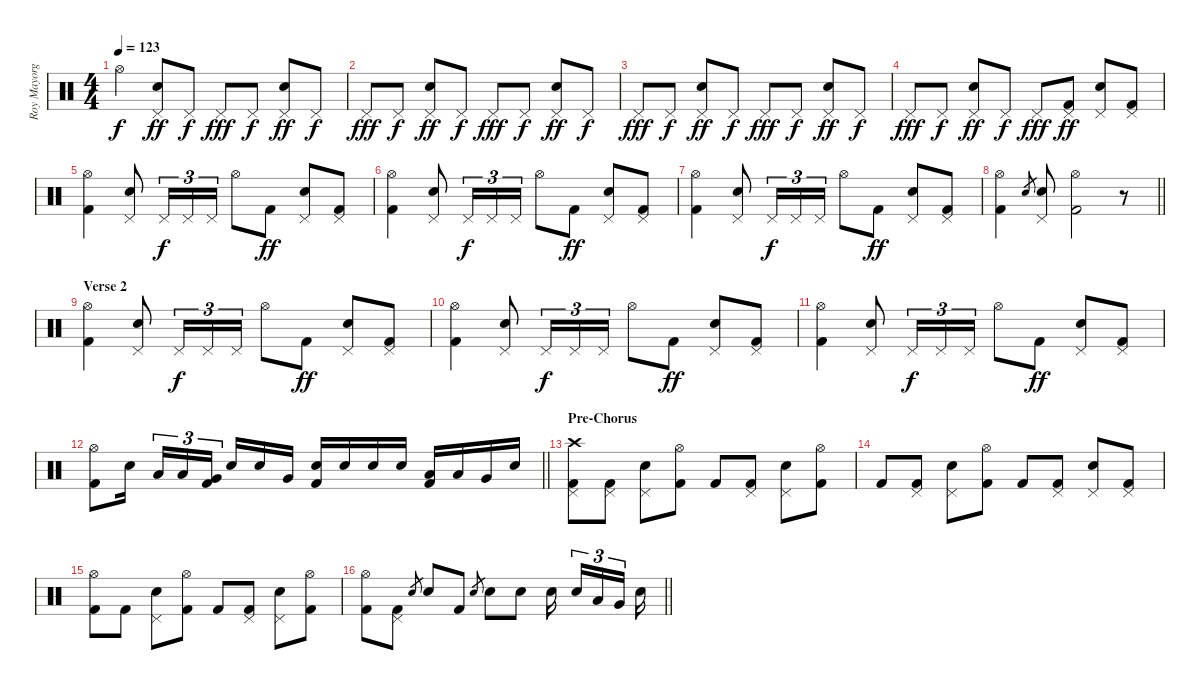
\track ("Roy Mayorga (Drums)" "Roy Mayorg") {instrument percussion}
\staff {score}
\articulation defaults
\ts (4 4)
\tempo 123
\clef neutral
\ks c "Hi-Hat (open)".4{dy f}
("Pedal Hi-Hat (hit)" "Electric Snare (hit)").8{dy ff} "Pedal Hi-Hat (hit)".8{dy f} "Pedal Hi-Hat (hit)".8{dy fff} "Pedal Hi-Hat (hit)".8{dy f} ("Pedal Hi-Hat (hit)" "Electric Snare (hit)").8{dy ff} "Pedal Hi-Hat (hit)".8{dy f} |
"Pedal Hi-Hat (hit)".8{dy fff} "Pedal Hi-Hat (hit)".8{dy f} ("Pedal Hi-Hat (hit)" "Electric Snare (hit)").8{dy ff} "Pedal Hi-Hat (hit)".8{dy f} "Pedal Hi-Hat (hit)".8{dy fff} "Pedal Hi-Hat (hit)".8{dy f} ("Pedal Hi-Hat (hit)" "Electric Snare (hit)").8{dy ff} "Pedal Hi-Hat (hit)".8{dy f} |
"Pedal Hi-Hat (hit)".8{dy fff} "Pedal Hi-Hat (hit)".8{dy f} ("Pedal Hi-Hat (hit)" "Electric Snare (hit)").8{dy ff} "Pedal Hi-Hat (hit)".8{dy f} "Pedal Hi-Hat (hit)".8{dy fff} "Pedal Hi-Hat (hit)".8{dy f} ("Pedal Hi-Hat (hit)" "Electric Snare (hit)").8{dy ff} "Pedal Hi-Hat (hit)".8{dy f} |
"Pedal Hi-Hat (hit)".8{dy fff} "Pedal Hi-Hat (hit)".8{dy f} ("Pedal Hi-Hat (hit)" "Electric Snare (hit)").8{dy ff} "Pedal Hi-Hat (hit)".8{dy f} "Pedal Hi-Hat (hit)".8{dy fff} ("Pedal Hi-Hat (hit)" "Kick (hit) 2").8{dy ff} ("Pedal Hi-Hat (hit)" "Electric Snare (hit)").8 ("Pedal Hi-Hat (hit)" "Kick (hit) 2").8 |
("Hi-Hat (open)" "Kick (hit) 2").4 ("Pedal Hi-Hat (hit)" "Electric Snare (hit)").8 "Pedal Hi-Hat (hit)".16{tu (3 2) dy f} "Pedal Hi-Hat (hit)".16{tu (3 2)} "Pedal Hi-Hat (hit)".16{tu (3 2)} "Hi-Hat (open)".8 "Kick (hit) 2".8{dy ff} ("Pedal Hi-Hat (hit)" "Electric Snare (hit)").8 ("Pedal Hi-Hat (hit)" "Kick (hit) 2").8 |
("Hi-Hat (open)" "Kick (hit) 2").4 ("Pedal Hi-Hat (hit)" "Electric Snare (hit)").8 "Pedal Hi-Hat (hit)".16{tu (3 2) dy f} "Pedal Hi-Hat (hit)".16{tu (3 2)} "Pedal Hi-Hat (hit)".16{tu (3 2)} "Hi-Hat (open)".8 "Kick (hit) 2".8{dy ff} ("Pedal Hi-Hat (hit)" "Electric Snare (hit)").8 ("Pedal Hi-Hat (hit)" "Kick (hit) 2").8 |
("Hi-Hat (open)" "Kick (hit) 2").4 ("Pedal Hi-Hat (hit)" "Electric Snare (hit)").8 "Pedal Hi-Hat (hit)".16{tu (3 2) dy f} "Pedal Hi-Hat (hit)".16{tu (3 2)} "Pedal Hi-Hat (hit)".16{tu (3 2)} "Hi-Hat (open)".8 "Kick (hit) 2".8{dy ff} ("Pedal Hi-Hat (hit)" "Electric Snare (hit)").8 ("Pedal Hi-Hat (hit)" "Kick (hit) 2").8 |
\barLineRight lightlight
("Hi-Hat (open)" "Kick (hit) 2").4 "Electric Snare (hit)".8{gr} ("Pedal Hi-Hat (hit)" "Electric Snare (hit)").8 ("Hi-Hat (open)" "Kick (hit) 2").2 r.8 |
\section ("" "Verse 2")
("Hi-Hat (open)" "Kick (hit) 2").4 ("Pedal Hi-Hat (hit)" "Electric Snare (hit)").8 "Pedal Hi-Hat (hit)".16{tu (3 2) dy f} "Pedal Hi-Hat (hit)".16{tu (3 2)} "Pedal Hi-Hat (hit)".16{tu (3 2)} "Hi-Hat (open)".8 "Kick (hit) 2".8{dy ff} ("Pedal Hi-Hat (hit)" "Electric Snare (hit)").8 ("Pedal Hi-Hat (hit)" "Kick (hit) 2").8 |
("Hi-Hat (open)" "Kick (hit) 2").4 ("Pedal Hi-Hat (hit)" "Electric Snare (hit)").8 "Pedal Hi-Hat (hit)".16{tu (3 2) dy f} "Pedal Hi-Hat (hit)".16{tu (3 2)} "Pedal Hi-Hat (hit)".16{tu (3 2)} "Hi-Hat (open)".8 "Kick (hit) 2".8{dy ff} ("Pedal Hi-Hat (hit)" "Electric Snare (hit)").8 ("Pedal Hi-Hat (hit)" "Kick (hit) 2").8 |
("Hi-Hat (open)" "Kick (hit) 2").4 ("Pedal Hi-Hat (hit)" "Electric Snare (hit)").8 "Pedal Hi-Hat (hit)".16{tu (3 2) dy f} "Pedal Hi-Hat (hit)".16{tu (3 2)} "Pedal Hi-Hat (hit)".16{tu (3 2)} "Hi-Hat (open)".8 "Kick (hit) 2".8{dy ff} ("Pedal Hi-Hat (hit)" "Electric Snare (hit)").8 ("Pedal Hi-Hat (hit)" "Kick (hit) 2").8 |
\barLineRight lightlight
("Hi-Hat (open)" "Kick (hit) 2").8 "Electric Snare (hit)".16{beam splitsecondary} "Low Tom (hit)".16{tu (3 2)} "Low Tom (hit)".16{tu (3 2)} ("Very Low Tom (hit)" "Kick (hit) 2").16{tu (3 2) beam splitsecondary} "Electric Snare (hit)".16 "Electric Snare (hit)".16 "Very Low Tom (hit)".16 ("Electric Snare (hit)" "Kick (hit) 2").16 "Electric Snare (hit)".16 "Electric Snare (hit)".16 "Electric Snare (hit)".16 ("Low Tom (hit)" "Kick (hit) 2").16 "Low Tom (hit)".16 "Very Low Tom (hit)".16 "Electric Snare (hit)".16 |
\section ("" "Pre-Chorus")
("Crash high (hit)" "Pedal Hi-Hat (hit)" "Kick (hit) 2").8 ("Pedal Hi-Hat (hit)" "Kick (hit) 2").8 ("Pedal Hi-Hat (hit)" "Electric Snare (hit)").8 ("Hi-Hat (open)" "Kick (hit) 2").8 "Kick (hit) 2".8 ("Pedal Hi-Hat (hit)" "Kick (hit) 2").8 ("Pedal Hi-Hat (hit)" "Electric Snare (hit)").8 ("Hi-Hat (open)" "Kick (hit) 2").8 |
"Kick (hit) 2".8 ("Pedal Hi-Hat (hit)" "Kick (hit) 2").8 ("Pedal Hi-Hat (hit)" "Electric Snare (hit)").8 ("Hi-Hat (open)" "Kick (hit) 2").8 "Kick (hit) 2".8 ("Pedal Hi-Hat (hit)" "Kick (hit) 2").8 ("Pedal Hi-Hat (hit)" "Electric Snare (hit)").8 ("Pedal Hi-Hat (hit)" "Kick (hit) 2").8 |
("Hi-Hat (open)" "Kick (hit) 2").8 "Kick (hit) 2".8 ("Pedal Hi-Hat (hit)" "Electric Snare (hit)").8 ("Hi-Hat (open)" "Kick (hit) 2").8 "Kick (hit) 2".8 ("Pedal Hi-Hat (hit)" "Kick (hit) 2").8 ("Pedal Hi-Hat (hit)" "Electric Snare (hit)").8 ("Hi-Hat (open)" "Kick (hit) 2").8 |
\barLineRight lightlight
("Hi-Hat (open)" "Kick (hit) 2").8 ("Pedal Hi-Hat (hit)" "Kick (hit) 2").8 "Electric Snare (hit)".8{gr} "Electric Snare (hit)".8 "Kick (hit) 2".8 "Electric Snare (hit)".8{gr} "Electric Snare (hit)".8 "Electric Snare (hit)".8 "Electric Snare (hit)".16{beam splitsecondary} "Electric Snare (hit)".16{tu (3 2)} "Low Tom (hit)".16{tu (3 2)} "Very Low Tom (hit)".16{tu (3 2) beam splitsecondary} "Electric Snare (hit)".16
